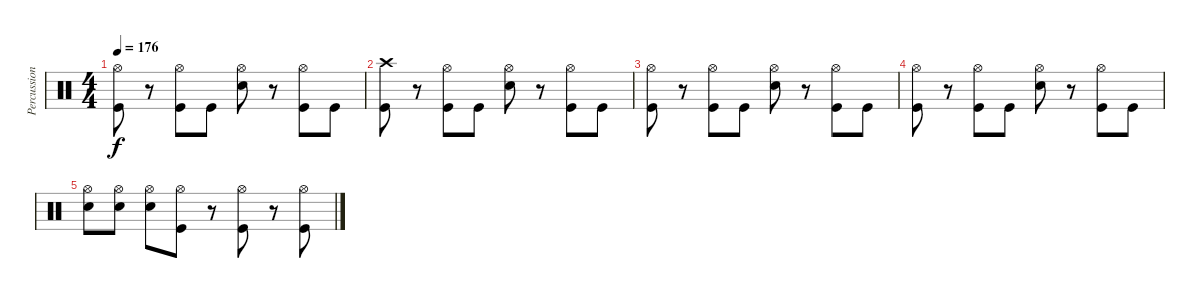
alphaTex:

\track ("Percussion" "Percussion") {instrument percussion}
\staff {score}
\articulation defaults
\ts (4 4)
\tempo 176
\clef neutral
\ks c
("Hi-Hat (open)" "Kick (hit)").8{dy f} r.8 ("Hi-Hat (open)" "Kick (hit)").8 "Kick (hit)".8 ("Hi-Hat (open)" "Snare (hit) 2").8 r.8 ("Hi-Hat (open)" "Kick (hit)").8 "Kick (hit)".8 |
("Crash high (hit)" "Kick (hit)").8 r.8 ("Hi-Hat (open)" "Kick (hit)").8 "Kick (hit)".8 ("Hi-Hat (open)" "Snare (hit) 2").8 r.8 ("Hi-Hat (open)" "Kick (hit)").8 "Kick (hit)".8 |
("Hi-Hat (open)" "Kick (hit)").8 r.8 ("Hi-Hat (open)" "Kick (hit)").8 "Kick (hit)".8 ("Hi-Hat (open)" "Snare (hit) 2").8 r.8 ("Hi-Hat (open)" "Kick (hit)").8 "Kick (hit)".8 |
("Hi-Hat (open)" "Kick (hit)").8 r.8 ("Hi-Hat (open)" "Kick (hit)").8 "Kick (hit)".8 ("Hi-Hat (open)" "Snare (hit) 2").8 r.8 ("Hi-Hat (open)" "Kick (hit)").8 "Kick (hit)".8 |
("Hi-Hat (open)" "Snare (hit) 2").8 ("Hi-Hat (open)" "Snare (hit) 2").8 ("Hi-Hat (open)" "Snare (hit) 2").8 ("Hi-Hat (open)" "Kick (hit)").8 r.8 ("Hi-Hat (open)" "Kick (hit)").8 r.8 ("Hi-Hat (open)" "Kick (hit)").8
